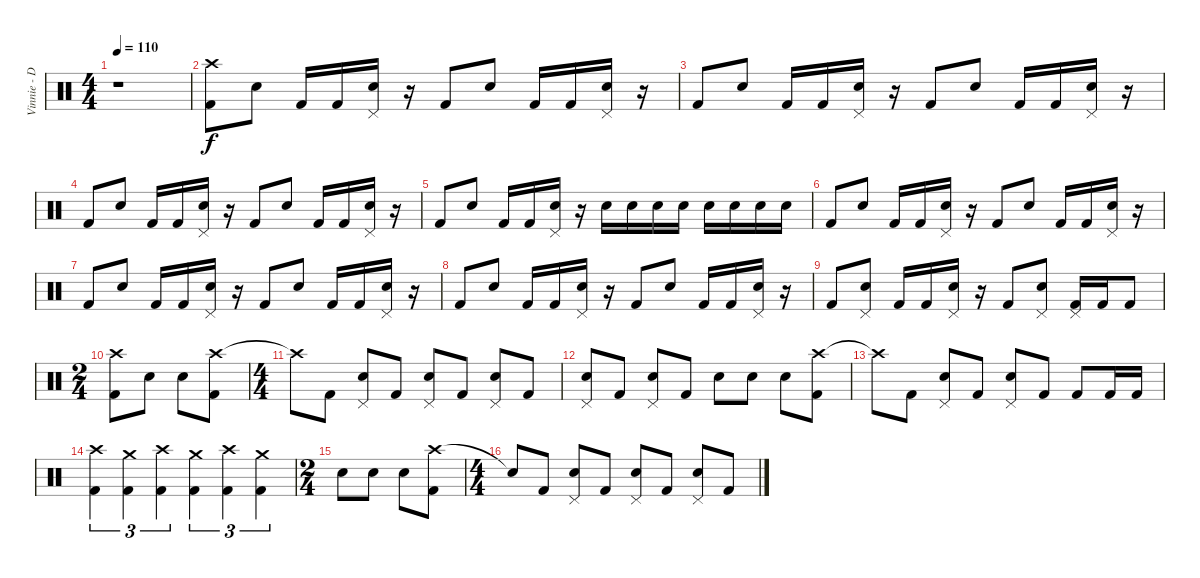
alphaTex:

\track ("Vinnie - Drums" "Vinnie - D") {instrument percussion}
\staff {score}
\articulation defaults
\ts (4 4)
\tempo 110
\tempo 210
\tempo 110
\clef neutral
\ks c
r.1{dy f} |
("Crash high (hit)" "Kick (hit) 2").8 "Electric Snare (hit)".8 "Kick (hit) 2".16 "Kick (hit) 2".16 ("Pedal Hi-Hat (hit)" "Electric Snare (hit)").16 r.16 "Kick (hit) 2".8 "Electric Snare (hit)".8 "Kick (hit) 2".16 "Kick (hit) 2".16 ("Pedal Hi-Hat (hit)" "Electric Snare (hit)").16 r.16 |
"Kick (hit) 2".8 "Electric Snare (hit)".8 "Kick (hit) 2".16 "Kick (hit) 2".16 ("Pedal Hi-Hat (hit)" "Electric Snare (hit)").16 r.16 "Kick (hit) 2".8 "Electric Snare (hit)".8 "Kick (hit) 2".16 "Kick (hit) 2".16 ("Pedal Hi-Hat (hit)" "Electric Snare (hit)").16 r.16 |
"Kick (hit) 2".8 "Electric Snare (hit)".8 "Kick (hit) 2".16 "Kick (hit) 2".16 ("Pedal Hi-Hat (hit)" "Electric Snare (hit)").16 r.16 "Kick (hit) 2".8 "Electric Snare (hit)".8 "Kick (hit) 2".16 "Kick (hit) 2".16 ("Pedal Hi-Hat (hit)" "Electric Snare (hit)").16 r.16 |
"Kick (hit) 2".8 "Electric Snare (hit)".8 "Kick (hit) 2".16 "Kick (hit) 2".16 ("Pedal Hi-Hat (hit)" "Electric Snare (hit)").16 r.16 "Electric Snare (hit)".16 "Electric Snare (hit)".16 "Electric Snare (hit)".16 "Electric Snare (hit)".16 "Electric Snare (hit)".16 "Electric Snare (hit)".16 "Electric Snare (hit)".16 "Electric Snare (hit)".16 |
"Kick (hit) 2".8 "Electric Snare (hit)".8 "Kick (hit) 2".16 "Kick (hit) 2".16 ("Pedal Hi-Hat (hit)" "Electric Snare (hit)").16 r.16 "Kick (hit) 2".8 "Electric Snare (hit)".8 "Kick (hit) 2".16 "Kick (hit) 2".16 ("Pedal Hi-Hat (hit)" "Electric Snare (hit)").16 r.16 |
"Kick (hit) 2".8 "Electric Snare (hit)".8 "Kick (hit) 2".16 "Kick (hit) 2".16 ("Pedal Hi-Hat (hit)" "Electric Snare (hit)").16 r.16 "Kick (hit) 2".8 "Electric Snare (hit)".8 "Kick (hit) 2".16 "Kick (hit) 2".16 ("Pedal Hi-Hat (hit)" "Electric Snare (hit)").16 r.16 |
"Kick (hit) 2".8 "Electric Snare (hit)".8 "Kick (hit) 2".16 "Kick (hit) 2".16 ("Pedal Hi-Hat (hit)" "Electric Snare (hit)").16 r.16 "Kick (hit) 2".8 "Electric Snare (hit)".8 "Kick (hit) 2".16 "Kick (hit) 2".16 ("Pedal Hi-Hat (hit)" "Electric Snare (hit)").16 r.16 |
"Kick (hit) 2".8 ("Pedal Hi-Hat (hit)" "Electric Snare (hit)").8 "Kick (hit) 2".16 "Kick (hit) 2".16 ("Pedal Hi-Hat (hit)" "Electric Snare (hit)").16 r.16 "Kick (hit) 2".8 ("Pedal Hi-Hat (hit)" "Electric Snare (hit)").8 ("Pedal Hi-Hat (hit)" "Kick (hit) 2").16 "Kick (hit) 2".16 "Kick (hit) 2".8 |
\ts (2 4)
("Crash high (hit)" "Kick (hit) 2").8 "Electric Snare (hit)".8 "Electric Snare (hit)".8 ("Crash high (hit)" "Kick (hit) 2").8 |
\ts (4 4)
"Crash high (hit)"{t}.8 "Kick (hit) 2".8 ("Pedal Hi-Hat (hit)" "Electric Snare (hit)").8 "Kick (hit) 2".8 ("Pedal Hi-Hat (hit)" "Electric Snare (hit)").8 "Kick (hit) 2".8 ("Pedal Hi-Hat (hit)" "Electric Snare (hit)").8 "Kick (hit) 2".8 |
("Pedal Hi-Hat (hit)" "Electric Snare (hit)").8 "Kick (hit) 2".8 ("Pedal Hi-Hat (hit)" "Electric Snare (hit)").8 "Kick (hit) 2".8 "Electric Snare (hit)".8 "Electric Snare (hit)".8 "Electric Snare (hit)".8 ("Crash high (hit)" "Kick (hit) 2").8 |
"Crash high (hit)"{t}.8 "Kick (hit) 2".8 ("Pedal Hi-Hat (hit)" "Electric Snare (hit)").8 "Kick (hit) 2".8 ("Pedal Hi-Hat (hit)" "Electric Snare (hit)").8 "Kick (hit) 2".8 "Kick (hit) 2".8 "Kick (hit) 2".16 "Kick (hit) 2".16 |
("Crash high (hit)" "Kick (hit) 2").4{tu (3 2)} ("Crash medium (hit)" "Kick (hit) 2").4{tu (3 2)} ("Crash high (hit)" "Kick (hit) 2").4{tu (3 2)} ("Crash medium (hit)" "Kick (hit) 2").4{tu (3 2)} ("Crash high (hit)" "Kick (hit) 2").4{tu (3 2)} ("Crash medium (hit)" "Kick (hit) 2").4{tu (3 2)} |
\ts (2 4)
"Electric Snare (hit)".8 "Electric Snare (hit)".8 "Electric Snare (hit)".8 ("Crash high (hit)" "Kick (hit) 2").8 |
\ts (4 4)
"Snare (hit)"{t}.8 "Kick (hit) 2".8 ("Pedal Hi-Hat (hit)" "Electric Snare (hit)").8 "Kick (hit) 2".8 ("Pedal Hi-Hat (hit)" "Electric Snare (hit)").8 "Kick (hit) 2".8 ("Pedal Hi-Hat (hit)" "Electric Snare (hit)").8 "Kick (hit) 2".8
